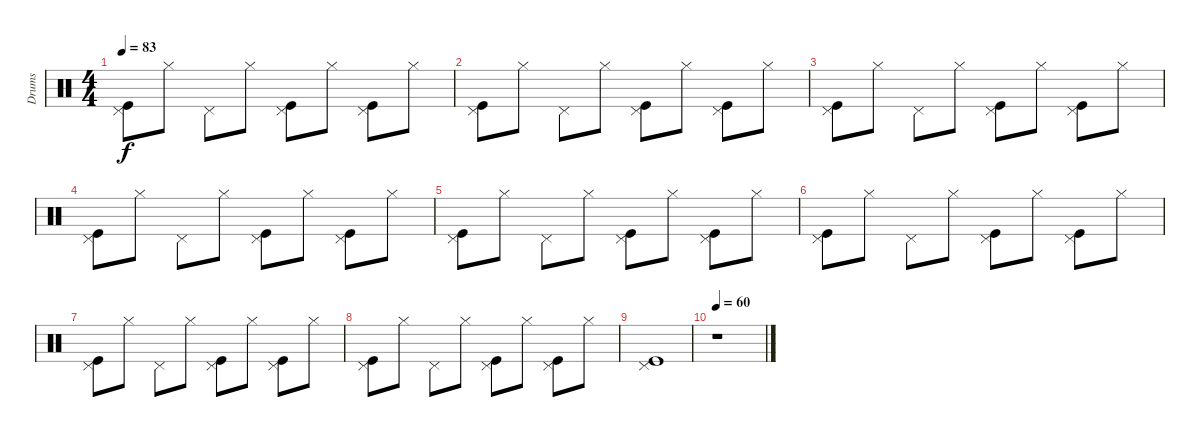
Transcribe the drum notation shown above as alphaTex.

\track ("Drums" "Drums") {instrument percussion}
\staff {score}
\articulation defaults
\ts (4 4)
\tempo 83
\clef neutral
\ks c
("Pedal Hi-Hat (hit)" "Kick (hit)").8{dy f} "Hi-Hat (closed)".8 "Pedal Hi-Hat (hit)".8 "Hi-Hat (closed)".8 ("Pedal Hi-Hat (hit)" "Kick (hit)").8 "Hi-Hat (closed)".8 ("Pedal Hi-Hat (hit)" "Kick (hit)").8 "Hi-Hat (closed)".8 |
("Pedal Hi-Hat (hit)" "Kick (hit)").8 "Hi-Hat (closed)".8 "Pedal Hi-Hat (hit)".8 "Hi-Hat (closed)".8 ("Pedal Hi-Hat (hit)" "Kick (hit)").8 "Hi-Hat (closed)".8 ("Pedal Hi-Hat (hit)" "Kick (hit)").8 "Hi-Hat (closed)".8 |
("Pedal Hi-Hat (hit)" "Kick (hit)").8 "Hi-Hat (closed)".8 "Pedal Hi-Hat (hit)".8 "Hi-Hat (closed)".8 ("Pedal Hi-Hat (hit)" "Kick (hit)").8 "Hi-Hat (closed)".8 ("Pedal Hi-Hat (hit)" "Kick (hit)").8 "Hi-Hat (closed)".8 |
("Pedal Hi-Hat (hit)" "Kick (hit)").8 "Hi-Hat (closed)".8 "Pedal Hi-Hat (hit)".8 "Hi-Hat (closed)".8 ("Pedal Hi-Hat (hit)" "Kick (hit)").8 "Hi-Hat (closed)".8 ("Pedal Hi-Hat (hit)" "Kick (hit)").8 "Hi-Hat (closed)".8 |
("Pedal Hi-Hat (hit)" "Kick (hit)").8 "Hi-Hat (closed)".8 "Pedal Hi-Hat (hit)".8 "Hi-Hat (closed)".8 ("Pedal Hi-Hat (hit)" "Kick (hit)").8 "Hi-Hat (closed)".8 ("Pedal Hi-Hat (hit)" "Kick (hit)").8 "Hi-Hat (closed)".8 |
("Pedal Hi-Hat (hit)" "Kick (hit)").8 "Hi-Hat (closed)".8 "Pedal Hi-Hat (hit)".8 "Hi-Hat (closed)".8 ("Pedal Hi-Hat (hit)" "Kick (hit)").8 "Hi-Hat (closed)".8 ("Pedal Hi-Hat (hit)" "Kick (hit)").8 "Hi-Hat (closed)".8 |
("Pedal Hi-Hat (hit)" "Kick (hit)").8 "Hi-Hat (closed)".8 "Pedal Hi-Hat (hit)".8 "Hi-Hat (closed)".8 ("Pedal Hi-Hat (hit)" "Kick (hit)").8 "Hi-Hat (closed)".8 ("Pedal Hi-Hat (hit)" "Kick (hit)").8 "Hi-Hat (closed)".8 |
("Pedal Hi-Hat (hit)" "Kick (hit)").8 "Hi-Hat (closed)".8 "Pedal Hi-Hat (hit)".8 "Hi-Hat (closed)".8 ("Pedal Hi-Hat (hit)" "Kick (hit)").8 "Hi-Hat (closed)".8 ("Pedal Hi-Hat (hit)" "Kick (hit)").8 "Hi-Hat (closed)".8 |
("Pedal Hi-Hat (hit)" "Kick (hit)").1 |
\tempo 60
r.1
